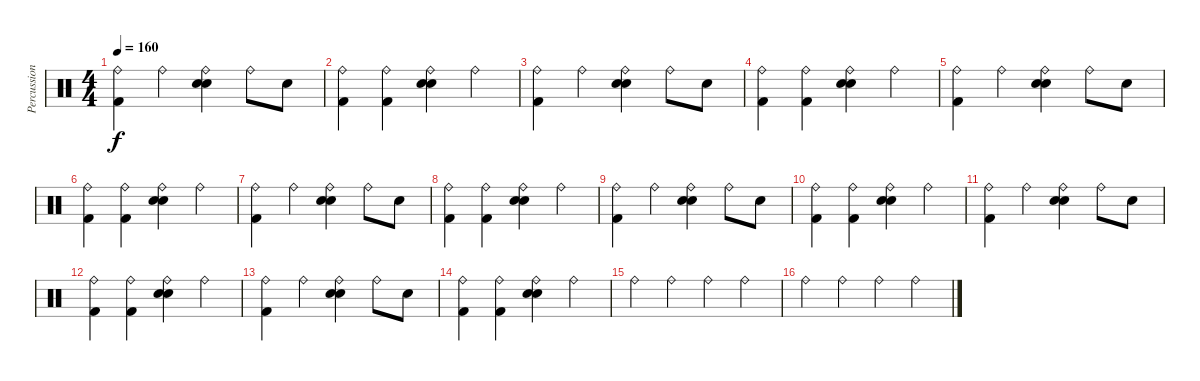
\track ("Percussion" "Percussion") {instrument percussion}
\staff {score}
\articulation defaults
\ts (4 4)
\tempo 160
\clef neutral
\ks c
("Ride (bell)" "Kick (hit) 2").4{dy f} "Ride (bell)".4 ("Ride (bell)" "Snare (hit) 2" "Hand Clap (hit)").4 "Ride (bell)".8 "Snare (hit) 2".8 |
("Ride (bell)" "Kick (hit) 2").4 ("Ride (bell)" "Kick (hit) 2").4 ("Ride (bell)" "Snare (hit) 2" "Hand Clap (hit)").4 "Ride (bell)".4 |
("Ride (bell)" "Kick (hit) 2").4 "Ride (bell)".4 ("Ride (bell)" "Snare (hit) 2" "Hand Clap (hit)").4 "Ride (bell)".8 "Snare (hit) 2".8 |
("Ride (bell)" "Kick (hit) 2").4 ("Ride (bell)" "Kick (hit) 2").4 ("Ride (bell)" "Snare (hit) 2" "Hand Clap (hit)").4 "Ride (bell)".4 |
("Ride (bell)" "Kick (hit) 2").4 "Ride (bell)".4 ("Ride (bell)" "Snare (hit) 2" "Hand Clap (hit)").4 "Ride (bell)".8 "Snare (hit) 2".8 |
("Ride (bell)" "Kick (hit) 2").4 ("Ride (bell)" "Kick (hit) 2").4 ("Ride (bell)" "Snare (hit) 2" "Hand Clap (hit)").4 "Ride (bell)".4 |
("Ride (bell)" "Kick (hit) 2").4 "Ride (bell)".4 ("Ride (bell)" "Snare (hit) 2" "Hand Clap (hit)").4 "Ride (bell)".8 "Snare (hit) 2".8 |
("Ride (bell)" "Kick (hit) 2").4 ("Ride (bell)" "Kick (hit) 2").4 ("Ride (bell)" "Snare (hit) 2" "Hand Clap (hit)").4 "Ride (bell)".4 |
("Ride (bell)" "Kick (hit) 2").4 "Ride (bell)".4 ("Ride (bell)" "Snare (hit) 2" "Hand Clap (hit)").4 "Ride (bell)".8 "Snare (hit) 2".8 |
("Ride (bell)" "Kick (hit) 2").4 ("Ride (bell)" "Kick (hit) 2").4 ("Ride (bell)" "Snare (hit) 2" "Hand Clap (hit)").4 "Ride (bell)".4 |
("Ride (bell)" "Kick (hit) 2").4 "Ride (bell)".4 ("Ride (bell)" "Snare (hit) 2" "Hand Clap (hit)").4 "Ride (bell)".8 "Snare (hit) 2".8 |
("Ride (bell)" "Kick (hit) 2").4 ("Ride (bell)" "Kick (hit) 2").4 ("Ride (bell)" "Snare (hit) 2" "Hand Clap (hit)").4 "Ride (bell)".4 |
("Ride (bell)" "Kick (hit) 2").4 "Ride (bell)".4 ("Ride (bell)" "Snare (hit) 2" "Hand Clap (hit)").4 "Ride (bell)".8 "Snare (hit) 2".8 |
("Ride (bell)" "Kick (hit) 2").4 ("Ride (bell)" "Kick (hit) 2").4 ("Ride (bell)" "Snare (hit) 2" "Hand Clap (hit)").4 "Ride (bell)".4 |
"Ride (bell)".4 "Ride (bell)".4 "Ride (bell)".4 "Ride (bell)".4 |
"Ride (bell)".4 "Ride (bell)".4 "Ride (bell)".4 "Ride (bell)".4
